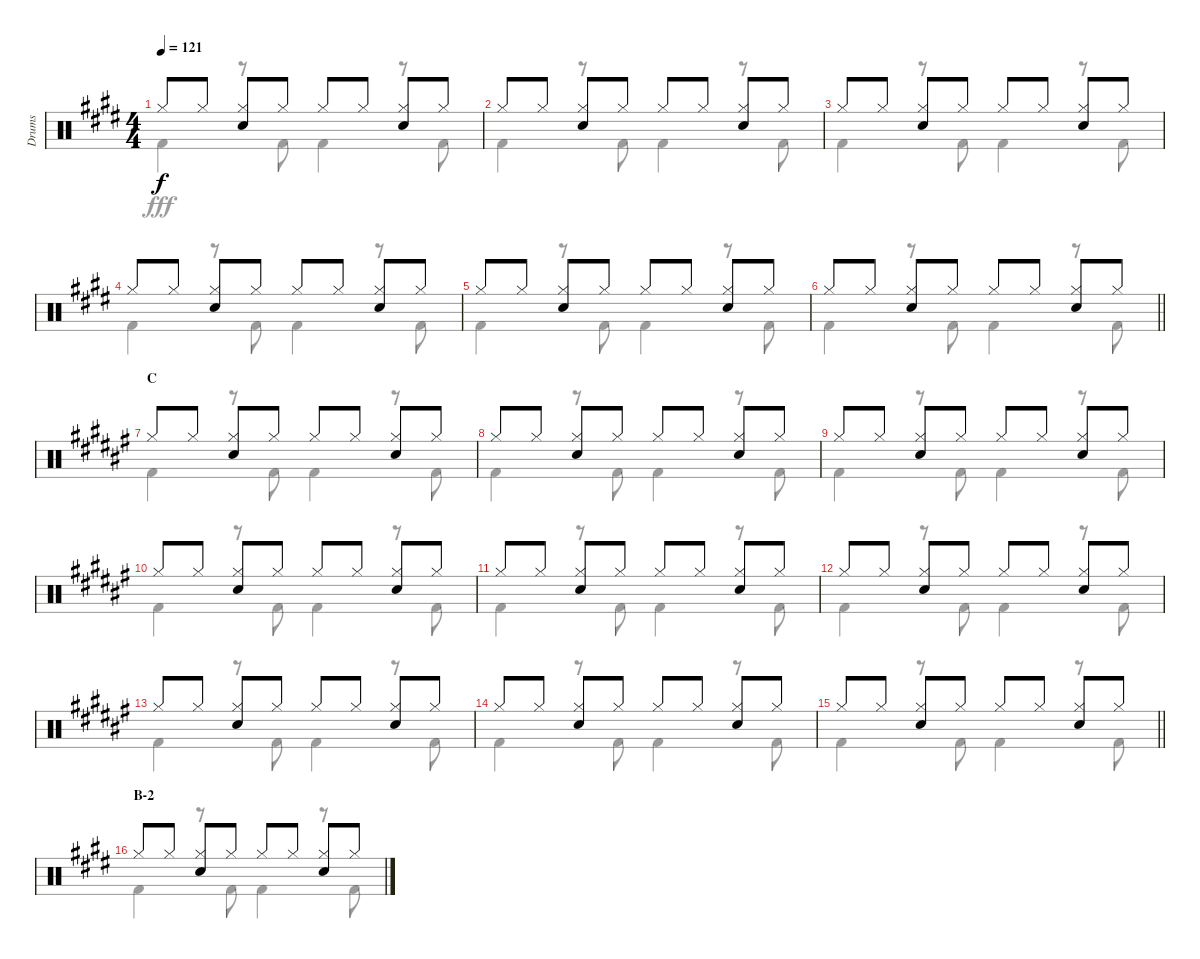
\track ("Drums" "Drums") {instrument percussion}
\staff {score}
\articulation defaults
\voice
\ts (4 4)
\tempo 121
\clef neutral
\ks e "Hi-Hat (closed)".8{dy f} "Hi-Hat (closed)".8
("Hi-Hat (closed)" "Snare (hit) 2").8 "Hi-Hat (closed)".8 "Hi-Hat (closed)".8 "Hi-Hat (closed)".8 ("Hi-Hat (closed)" "Snare (hit) 2").8 "Hi-Hat (closed)".8 |
"Hi-Hat (closed)".8 "Hi-Hat (closed)".8 ("Hi-Hat (closed)" "Snare (hit) 2").8 "Hi-Hat (closed)".8 "Hi-Hat (closed)".8 "Hi-Hat (closed)".8 ("Hi-Hat (closed)" "Snare (hit) 2").8 "Hi-Hat (closed)".8 |
"Hi-Hat (closed)".8 "Hi-Hat (closed)".8 ("Hi-Hat (closed)" "Snare (hit) 2").8 "Hi-Hat (closed)".8 "Hi-Hat (closed)".8 "Hi-Hat (closed)".8 ("Hi-Hat (closed)" "Snare (hit) 2").8 "Hi-Hat (closed)".8 |
"Hi-Hat (closed)".8 "Hi-Hat (closed)".8 ("Hi-Hat (closed)" "Snare (hit) 2").8 "Hi-Hat (closed)".8 "Hi-Hat (closed)".8 "Hi-Hat (closed)".8 ("Hi-Hat (closed)" "Snare (hit) 2").8 "Hi-Hat (closed)".8 |
"Hi-Hat (closed)".8 "Hi-Hat (closed)".8 ("Hi-Hat (closed)" "Snare (hit) 2").8 "Hi-Hat (closed)".8 "Hi-Hat (closed)".8 "Hi-Hat (closed)".8 ("Hi-Hat (closed)" "Snare (hit) 2").8 "Hi-Hat (closed)".8 |
\barLineRight lightlight "Hi-Hat (closed)".8 "Hi-Hat (closed)".8
("Hi-Hat (closed)" "Snare (hit) 2").8 "Hi-Hat (closed)".8 "Hi-Hat (closed)".8 "Hi-Hat (closed)".8 ("Hi-Hat (closed)" "Snare (hit) 2").8 "Hi-Hat (closed)".8 |
\section ("" "C")
\ks f# "Hi-Hat (closed)".8 "Hi-Hat (closed)".8
("Hi-Hat (closed)" "Snare (hit) 2").8 "Hi-Hat (closed)".8 "Hi-Hat (closed)".8 "Hi-Hat (closed)".8 ("Hi-Hat (closed)" "Snare (hit) 2").8 "Hi-Hat (closed)".8 |
"Hi-Hat (closed)".8 "Hi-Hat (closed)".8 ("Hi-Hat (closed)" "Snare (hit) 2").8 "Hi-Hat (closed)".8 "Hi-Hat (closed)".8 "Hi-Hat (closed)".8 ("Hi-Hat (closed)" "Snare (hit) 2").8 "Hi-Hat (closed)".8 |
"Hi-Hat (closed)".8 "Hi-Hat (closed)".8 ("Hi-Hat (closed)" "Snare (hit) 2").8 "Hi-Hat (closed)".8 "Hi-Hat (closed)".8 "Hi-Hat (closed)".8 ("Hi-Hat (closed)" "Snare (hit) 2").8 "Hi-Hat (closed)".8 |
"Hi-Hat (closed)".8 "Hi-Hat (closed)".8 ("Hi-Hat (closed)" "Snare (hit) 2").8 "Hi-Hat (closed)".8 "Hi-Hat (closed)".8 "Hi-Hat (closed)".8 ("Hi-Hat (closed)" "Snare (hit) 2").8 "Hi-Hat (closed)".8 |
"Hi-Hat (closed)".8 "Hi-Hat (closed)".8 ("Hi-Hat (closed)" "Snare (hit) 2").8 "Hi-Hat (closed)".8 "Hi-Hat (closed)".8 "Hi-Hat (closed)".8 ("Hi-Hat (closed)" "Snare (hit) 2").8 "Hi-Hat (closed)".8 |
"Hi-Hat (closed)".8 "Hi-Hat (closed)".8 ("Hi-Hat (closed)" "Snare (hit) 2").8 "Hi-Hat (closed)".8 "Hi-Hat (closed)".8 "Hi-Hat (closed)".8 ("Hi-Hat (closed)" "Snare (hit) 2").8 "Hi-Hat (closed)".8 |
"Hi-Hat (closed)".8 "Hi-Hat (closed)".8 ("Hi-Hat (closed)" "Snare (hit) 2").8 "Hi-Hat (closed)".8 "Hi-Hat (closed)".8 "Hi-Hat (closed)".8 ("Hi-Hat (closed)" "Snare (hit) 2").8 "Hi-Hat (closed)".8 |
"Hi-Hat (closed)".8 "Hi-Hat (closed)".8 ("Hi-Hat (closed)" "Snare (hit) 2").8 "Hi-Hat (closed)".8 "Hi-Hat (closed)".8 "Hi-Hat (closed)".8 ("Hi-Hat (closed)" "Snare (hit) 2").8 "Hi-Hat (closed)".8 |
\barLineRight lightlight "Hi-Hat (closed)".8 "Hi-Hat (closed)".8
("Hi-Hat (closed)" "Snare (hit) 2").8 "Hi-Hat (closed)".8 "Hi-Hat (closed)".8 "Hi-Hat (closed)".8 ("Hi-Hat (closed)" "Snare (hit) 2").8 "Hi-Hat (closed)".8 |
\section ("" "B-2")
\ks e "Hi-Hat (closed)".8 "Hi-Hat (closed)".8
("Hi-Hat (closed)" "Snare (hit) 2").8 "Hi-Hat (closed)".8 "Hi-Hat (closed)".8 "Hi-Hat (closed)".8 ("Hi-Hat (closed)" "Snare (hit) 2").8 "Hi-Hat (closed)".8
\voice
\clef neutral
\ottava regular
\simile none
\ks e "Kick (hit) 2".4{dy fff}
r.8 "Kick (hit) 2".8 "Kick (hit) 2".4 r.8 "Kick (hit) 2".8 |
"Kick (hit) 2".4 r.8 "Kick (hit) 2".8 "Kick (hit) 2".4 r.8 "Kick (hit) 2".8 |
"Kick (hit) 2".4 r.8 "Kick (hit) 2".8 "Kick (hit) 2".4 r.8 "Kick (hit) 2".8 |
"Kick (hit) 2".4 r.8 "Kick (hit) 2".8 "Kick (hit) 2".4 r.8 "Kick (hit) 2".8 |
"Kick (hit) 2".4 r.8 "Kick (hit) 2".8 "Kick (hit) 2".4 r.8 "Kick (hit) 2".8 |
\barLineRight lightlight "Kick (hit) 2".4
r.8 "Kick (hit) 2".8 "Kick (hit) 2".4 r.8 "Kick (hit) 2".8 |
\ks f# "Kick (hit) 2".4
r.8 "Kick (hit) 2".8 "Kick (hit) 2".4 r.8 "Kick (hit) 2".8 |
"Kick (hit) 2".4 r.8 "Kick (hit) 2".8 "Kick (hit) 2".4 r.8 "Kick (hit) 2".8 |
"Kick (hit) 2".4 r.8 "Kick (hit) 2".8 "Kick (hit) 2".4 r.8 "Kick (hit) 2".8 |
"Kick (hit) 2".4 r.8 "Kick (hit) 2".8 "Kick (hit) 2".4 r.8 "Kick (hit) 2".8 |
"Kick (hit) 2".4 r.8 "Kick (hit) 2".8 "Kick (hit) 2".4 r.8 "Kick (hit) 2".8 |
"Kick (hit) 2".4 r.8 "Kick (hit) 2".8 "Kick (hit) 2".4 r.8 "Kick (hit) 2".8 |
"Kick (hit) 2".4 r.8 "Kick (hit) 2".8 "Kick (hit) 2".4 r.8 "Kick (hit) 2".8 |
"Kick (hit) 2".4 r.8 "Kick (hit) 2".8 "Kick (hit) 2".4 r.8 "Kick (hit) 2".8 |
\barLineRight lightlight "Kick (hit) 2".4
r.8 "Kick (hit) 2".8 "Kick (hit) 2".4 r.8 "Kick (hit) 2".8 |
\ks e "Kick (hit) 2".4
r.8 "Kick (hit) 2".8 "Kick (hit) 2".4 r.8 "Kick (hit) 2".8
